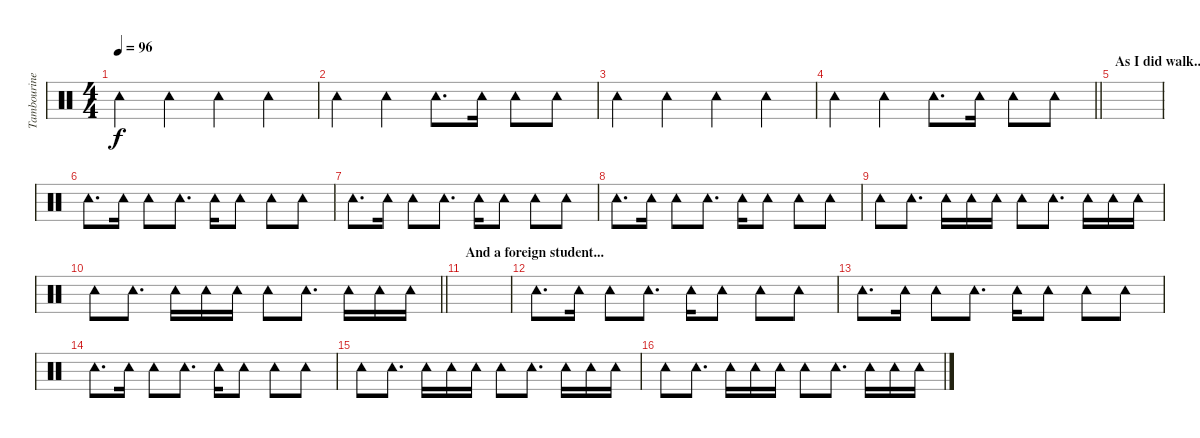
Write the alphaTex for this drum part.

\track ("Tambourine" "Tambourine") {instrument percussion}
\staff {score}
\articulation defaults
\ts (4 4)
\tempo 96
\clef neutral
\ks c "Tambourine (hit)".4{dy f} "Tambourine (hit)".4 "Tambourine (hit)".4 "Tambourine (hit)".4
|
"Tambourine (hit)".4 "Tambourine (hit)".4 "Tambourine (hit)".8{d} "Tambourine (hit)".16 "Tambourine (hit)".8 "Tambourine (hit)".8 |
"Tambourine (hit)".4 "Tambourine (hit)".4 "Tambourine (hit)".4 "Tambourine (hit)".4 |
\barLineRight lightlight "Tambourine (hit)".4 "Tambourine (hit)".4 "Tambourine (hit)".8{d} "Tambourine (hit)".16 "Tambourine (hit)".8 "Tambourine (hit)".8
|
\section ("" "As I did walk...")
|
"Tambourine (hit)".8{d} "Tambourine (hit)".16 "Tambourine (hit)".8 "Tambourine (hit)".8{d} "Tambourine (hit)".16 "Tambourine (hit)".8 "Tambourine (hit)".8 "Tambourine (hit)".8 |
"Tambourine (hit)".8{d} "Tambourine (hit)".16 "Tambourine (hit)".8 "Tambourine (hit)".8{d} "Tambourine (hit)".16 "Tambourine (hit)".8 "Tambourine (hit)".8 "Tambourine (hit)".8 |
"Tambourine (hit)".8{d} "Tambourine (hit)".16 "Tambourine (hit)".8 "Tambourine (hit)".8{d} "Tambourine (hit)".16 "Tambourine (hit)".8 "Tambourine (hit)".8 "Tambourine (hit)".8 |
"Tambourine (hit)".8 "Tambourine (hit)".8{d} "Tambourine (hit)".16 "Tambourine (hit)".16 "Tambourine (hit)".16 "Tambourine (hit)".8 "Tambourine (hit)".8{d} "Tambourine (hit)".16 "Tambourine (hit)".16 "Tambourine (hit)".16 |
\barLineRight lightlight "Tambourine (hit)".8 "Tambourine (hit)".8{d} "Tambourine (hit)".16 "Tambourine (hit)".16 "Tambourine (hit)".16 "Tambourine (hit)".8 "Tambourine (hit)".8{d} "Tambourine (hit)".16 "Tambourine (hit)".16 "Tambourine (hit)".16
|
\section ("" "And a foreign student...")
|
"Tambourine (hit)".8{d} "Tambourine (hit)".16 "Tambourine (hit)".8 "Tambourine (hit)".8{d} "Tambourine (hit)".16 "Tambourine (hit)".8 "Tambourine (hit)".8 "Tambourine (hit)".8 |
"Tambourine (hit)".8{d} "Tambourine (hit)".16 "Tambourine (hit)".8 "Tambourine (hit)".8{d} "Tambourine (hit)".16 "Tambourine (hit)".8 "Tambourine (hit)".8 "Tambourine (hit)".8 |
"Tambourine (hit)".8{d} "Tambourine (hit)".16 "Tambourine (hit)".8 "Tambourine (hit)".8{d} "Tambourine (hit)".16 "Tambourine (hit)".8 "Tambourine (hit)".8 "Tambourine (hit)".8 |
"Tambourine (hit)".8 "Tambourine (hit)".8{d} "Tambourine (hit)".16 "Tambourine (hit)".16 "Tambourine (hit)".16 "Tambourine (hit)".8 "Tambourine (hit)".8{d} "Tambourine (hit)".16 "Tambourine (hit)".16 "Tambourine (hit)".16 |
"Tambourine (hit)".8 "Tambourine (hit)".8{d} "Tambourine (hit)".16 "Tambourine (hit)".16 "Tambourine (hit)".16 "Tambourine (hit)".8 "Tambourine (hit)".8{d} "Tambourine (hit)".16 "Tambourine (hit)".16 "Tambourine (hit)".16
